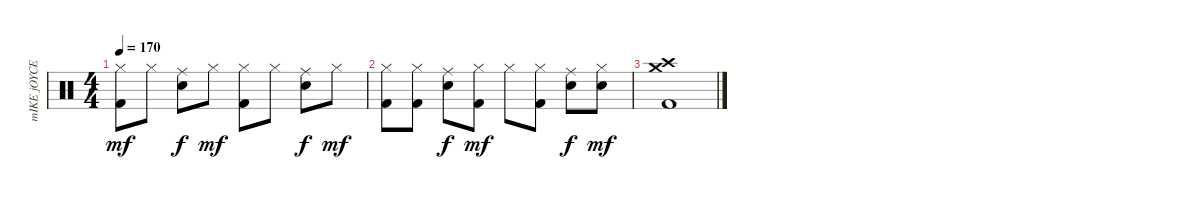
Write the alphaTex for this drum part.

\track ("mIKE jOYCE" "mIKE jOYCE") {instrument percussion}
\staff {score}
\articulation defaults
\ts (4 4)
\tempo 170
\clef neutral
\ks c
("Hi-Hat (closed)" "Kick (hit) 2").8{dy mf} "Hi-Hat (closed)".8 ("Electric Snare (hit)" "Ride (middle)").8{dy f} "Hi-Hat (closed)".8{dy mf} ("Hi-Hat (closed)" "Kick (hit) 2").8 "Hi-Hat (closed)".8 ("Electric Snare (hit)" "Ride (middle)").8{dy f} "Hi-Hat (closed)".8{dy mf} |
("Hi-Hat (closed)" "Kick (hit) 2").8 ("Hi-Hat (closed)" "Kick (hit) 2").8 ("Electric Snare (hit)" "Ride (middle)").8{dy f} ("Hi-Hat (closed)" "Kick (hit) 2").8{dy mf} "Hi-Hat (closed)".8 ("Hi-Hat (closed)" "Kick (hit) 2").8 ("Electric Snare (hit)" "Ride (middle)").8{dy f} ("Hi-Hat (closed)" "Electric Snare (hit)").8{dy mf} |
("Crash high (hit)" "Crash medium (hit)" "Kick (hit) 2").1
